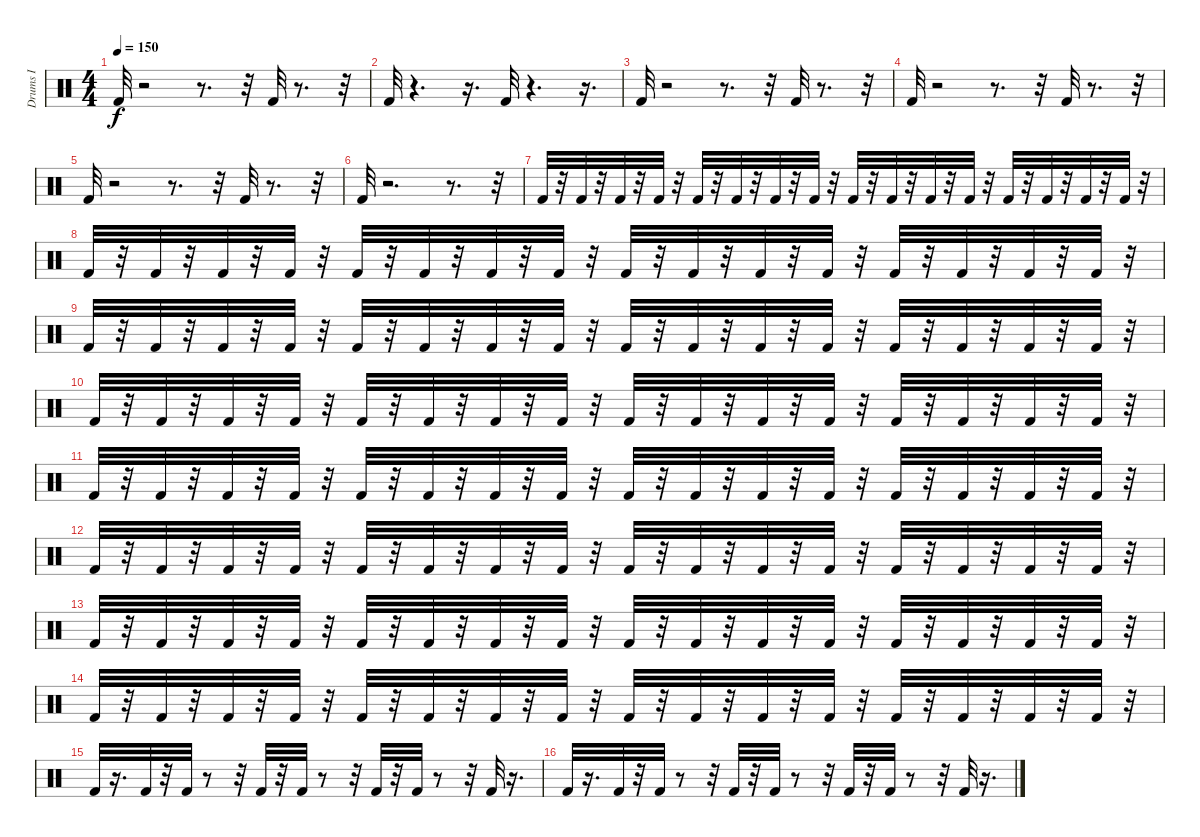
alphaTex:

\track ("Drums I" "Drums I") {instrument percussion}
\staff {score}
\articulation defaults
\ts (4 4)
\tempo 150
\clef neutral
\ks c "Kick (hit) 2".32{dy f}
r.2 r.8{d} r.32 "Kick (hit) 2".32 r.8{d} r.32 |
"Kick (hit) 2".32 r.4{d} r.16{d} "Kick (hit) 2".32 r.4{d} r.16{d} |
"Kick (hit) 2".32 r.2 r.8{d} r.32 "Kick (hit) 2".32 r.8{d} r.32 |
"Kick (hit) 2".32 r.2 r.8{d} r.32 "Kick (hit) 2".32 r.8{d} r.32 |
"Kick (hit) 2".32 r.2 r.8{d} r.32 "Kick (hit) 2".32 r.8{d} r.32 |
"Kick (hit) 2".32 r.2{d} r.8{d} r.32 |
"Kick (hit) 2".32 r.32 "Kick (hit) 2".32 r.32 "Kick (hit) 2".32 r.32 "Kick (hit) 2".32 r.32 "Kick (hit) 2".32 r.32 "Kick (hit) 2".32 r.32 "Kick (hit) 2".32 r.32 "Kick (hit) 2".32 r.32 "Kick (hit) 2".32 r.32 "Kick (hit) 2".32 r.32 "Kick (hit) 2".32 r.32 "Kick (hit) 2".32 r.32 "Kick (hit) 2".32 r.32 "Kick (hit) 2".32 r.32 "Kick (hit) 2".32 r.32 "Kick (hit) 2".32 r.32 |
"Kick (hit) 2".32 r.32 "Kick (hit) 2".32 r.32 "Kick (hit) 2".32 r.32 "Kick (hit) 2".32 r.32 "Kick (hit) 2".32 r.32 "Kick (hit) 2".32 r.32 "Kick (hit) 2".32 r.32 "Kick (hit) 2".32 r.32 "Kick (hit) 2".32 r.32 "Kick (hit) 2".32 r.32 "Kick (hit) 2".32 r.32 "Kick (hit) 2".32 r.32 "Kick (hit) 2".32 r.32 "Kick (hit) 2".32 r.32 "Kick (hit) 2".32 r.32 "Kick (hit) 2".32 r.32 |
"Kick (hit) 2".32 r.32 "Kick (hit) 2".32 r.32 "Kick (hit) 2".32 r.32 "Kick (hit) 2".32 r.32 "Kick (hit) 2".32 r.32 "Kick (hit) 2".32 r.32 "Kick (hit) 2".32 r.32 "Kick (hit) 2".32 r.32 "Kick (hit) 2".32 r.32 "Kick (hit) 2".32 r.32 "Kick (hit) 2".32 r.32 "Kick (hit) 2".32 r.32 "Kick (hit) 2".32 r.32 "Kick (hit) 2".32 r.32 "Kick (hit) 2".32 r.32 "Kick (hit) 2".32 r.32 |
"Kick (hit) 2".32 r.32 "Kick (hit) 2".32 r.32 "Kick (hit) 2".32 r.32 "Kick (hit) 2".32 r.32 "Kick (hit) 2".32 r.32 "Kick (hit) 2".32 r.32 "Kick (hit) 2".32 r.32 "Kick (hit) 2".32 r.32 "Kick (hit) 2".32 r.32 "Kick (hit) 2".32 r.32 "Kick (hit) 2".32 r.32 "Kick (hit) 2".32 r.32 "Kick (hit) 2".32 r.32 "Kick (hit) 2".32 r.32 "Kick (hit) 2".32 r.32 "Kick (hit) 2".32 r.32 |
"Kick (hit) 2".32 r.32 "Kick (hit) 2".32 r.32 "Kick (hit) 2".32 r.32 "Kick (hit) 2".32 r.32 "Kick (hit) 2".32 r.32 "Kick (hit) 2".32 r.32 "Kick (hit) 2".32 r.32 "Kick (hit) 2".32 r.32 "Kick (hit) 2".32 r.32 "Kick (hit) 2".32 r.32 "Kick (hit) 2".32 r.32 "Kick (hit) 2".32 r.32 "Kick (hit) 2".32 r.32 "Kick (hit) 2".32 r.32 "Kick (hit) 2".32 r.32 "Kick (hit) 2".32 r.32 |
"Kick (hit) 2".32 r.32 "Kick (hit) 2".32 r.32 "Kick (hit) 2".32 r.32 "Kick (hit) 2".32 r.32 "Kick (hit) 2".32 r.32 "Kick (hit) 2".32 r.32 "Kick (hit) 2".32 r.32 "Kick (hit) 2".32 r.32 "Kick (hit) 2".32 r.32 "Kick (hit) 2".32 r.32 "Kick (hit) 2".32 r.32 "Kick (hit) 2".32 r.32 "Kick (hit) 2".32 r.32 "Kick (hit) 2".32 r.32 "Kick (hit) 2".32 r.32 "Kick (hit) 2".32 r.32 |
"Kick (hit) 2".32 r.32 "Kick (hit) 2".32 r.32 "Kick (hit) 2".32 r.32 "Kick (hit) 2".32 r.32 "Kick (hit) 2".32 r.32 "Kick (hit) 2".32 r.32 "Kick (hit) 2".32 r.32 "Kick (hit) 2".32 r.32 "Kick (hit) 2".32 r.32 "Kick (hit) 2".32 r.32 "Kick (hit) 2".32 r.32 "Kick (hit) 2".32 r.32 "Kick (hit) 2".32 r.32 "Kick (hit) 2".32 r.32 "Kick (hit) 2".32 r.32 "Kick (hit) 2".32 r.32 |
"Kick (hit) 2".32 r.32 "Kick (hit) 2".32 r.32 "Kick (hit) 2".32 r.32 "Kick (hit) 2".32 r.32 "Kick (hit) 2".32 r.32 "Kick (hit) 2".32 r.32 "Kick (hit) 2".32 r.32 "Kick (hit) 2".32 r.32 "Kick (hit) 2".32 r.32 "Kick (hit) 2".32 r.32 "Kick (hit) 2".32 r.32 "Kick (hit) 2".32 r.32 "Kick (hit) 2".32 r.32 "Kick (hit) 2".32 r.32 "Kick (hit) 2".32 r.32 "Kick (hit) 2".32 r.32 |
"Kick (hit) 2".32 r.16{d} "Kick (hit) 2".32 r.32 "Kick (hit) 2".32 r.8 r.32 "Kick (hit) 2".32 r.32 "Kick (hit) 2".32 r.8 r.32 "Kick (hit) 2".32 r.32 "Kick (hit) 2".32 r.8 r.32 "Kick (hit) 2".32 r.16{d} |
"Kick (hit) 2".32 r.16{d} "Kick (hit) 2".32 r.32 "Kick (hit) 2".32 r.8 r.32 "Kick (hit) 2".32 r.32 "Kick (hit) 2".32 r.8 r.32 "Kick (hit) 2".32 r.32 "Kick (hit) 2".32 r.8 r.32 "Kick (hit) 2".32 r.16{d}
